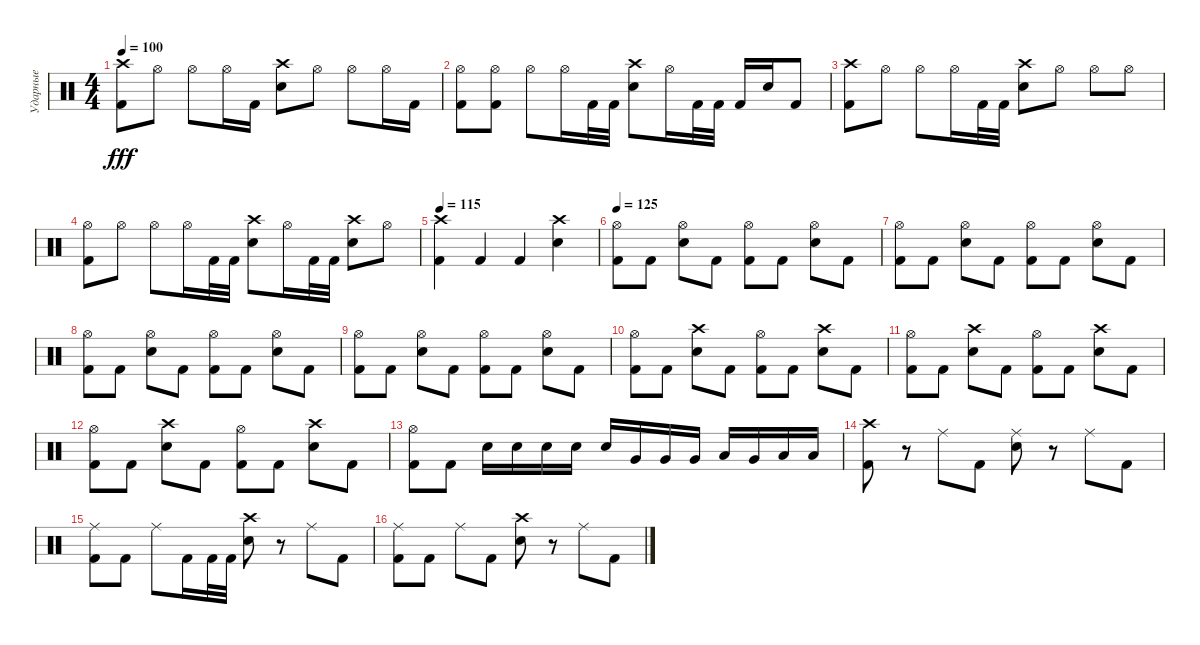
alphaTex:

\track ("Ударные" "Ударные") {instrument percussion}
\staff {score}
\articulation defaults
\ts (4 4)
\tempo 100
\clef neutral
\ks c
("Crash high (hit)" "Kick (hit) 2").8{dy fff} "Hi-Hat (open)".8 "Hi-Hat (open)".8 "Hi-Hat (open)".16 "Kick (hit) 2".16 ("Crash high (hit)" "Electric Snare (hit)").8 "Hi-Hat (open)".8 "Hi-Hat (open)".8 "Hi-Hat (open)".16 "Kick (hit) 2".16 |
("Hi-Hat (open)" "Kick (hit) 2").8 ("Hi-Hat (open)" "Kick (hit) 2").8 "Hi-Hat (open)".8 "Hi-Hat (open)".16 "Kick (hit) 2".32 "Kick (hit) 2".32 ("Crash high (hit)" "Electric Snare (hit)").8 "Hi-Hat (open)".16 "Kick (hit) 2".32 "Kick (hit) 2".32 "Kick (hit) 2".16 "Electric Snare (hit)".16 "Kick (hit) 2".8 |
("Crash high (hit)" "Kick (hit) 2").8 "Hi-Hat (open)".8 "Hi-Hat (open)".8 "Hi-Hat (open)".16 "Kick (hit) 2".32 "Kick (hit) 2".32 ("Crash high (hit)" "Electric Snare (hit)").8 "Hi-Hat (open)".8 "Hi-Hat (open)".8 "Hi-Hat (open)".8 |
("Hi-Hat (open)" "Kick (hit) 2").8 "Hi-Hat (open)".8 "Hi-Hat (open)".8 "Hi-Hat (open)".16 "Kick (hit) 2".32 "Kick (hit) 2".32 ("Crash high (hit)" "Electric Snare (hit)").8 "Hi-Hat (open)".16 "Kick (hit) 2".32 "Kick (hit) 2".32 ("Crash high (hit)" "Electric Snare (hit)").8 "Hi-Hat (open)".8 |
\tempo 115
("Crash high (hit)" "Kick (hit) 2").4 "Kick (hit) 2".4 "Kick (hit) 2".4 ("Crash high (hit)" "Electric Snare (hit)").4 |
\tempo 125
("Hi-Hat (open)" "Kick (hit) 2").8 "Kick (hit) 2".8 ("Hi-Hat (open)" "Electric Snare (hit)").8 "Kick (hit) 2".8 ("Hi-Hat (open)" "Kick (hit) 2").8 "Kick (hit) 2".8 ("Hi-Hat (open)" "Electric Snare (hit)").8 "Kick (hit) 2".8 |
("Hi-Hat (open)" "Kick (hit) 2").8 "Kick (hit) 2".8 ("Hi-Hat (open)" "Electric Snare (hit)").8 "Kick (hit) 2".8 ("Hi-Hat (open)" "Kick (hit) 2").8 "Kick (hit) 2".8 ("Hi-Hat (open)" "Electric Snare (hit)").8 "Kick (hit) 2".8 |
("Hi-Hat (open)" "Kick (hit) 2").8 "Kick (hit) 2".8 ("Hi-Hat (open)" "Electric Snare (hit)").8 "Kick (hit) 2".8 ("Hi-Hat (open)" "Kick (hit) 2").8 "Kick (hit) 2".8 ("Hi-Hat (open)" "Electric Snare (hit)").8 "Kick (hit) 2".8 |
("Hi-Hat (open)" "Kick (hit) 2").8 "Kick (hit) 2".8 ("Hi-Hat (open)" "Electric Snare (hit)").8 "Kick (hit) 2".8 ("Hi-Hat (open)" "Kick (hit) 2").8 "Kick (hit) 2".8 ("Hi-Hat (open)" "Electric Snare (hit)").8 "Kick (hit) 2".8 |
("Hi-Hat (open)" "Kick (hit) 2").8 "Kick (hit) 2".8 ("Crash high (hit)" "Electric Snare (hit)").8 "Kick (hit) 2".8 ("Hi-Hat (open)" "Kick (hit) 2").8 "Kick (hit) 2".8 ("Crash high (hit)" "Electric Snare (hit)").8 "Kick (hit) 2".8 |
("Hi-Hat (open)" "Kick (hit) 2").8 "Kick (hit) 2".8 ("Crash high (hit)" "Electric Snare (hit)").8 "Kick (hit) 2".8 ("Hi-Hat (open)" "Kick (hit) 2").8 "Kick (hit) 2".8 ("Crash high (hit)" "Electric Snare (hit)").8 "Kick (hit) 2".8 |
("Hi-Hat (open)" "Kick (hit) 2").8 "Kick (hit) 2".8 ("Crash high (hit)" "Electric Snare (hit)").8 "Kick (hit) 2".8 ("Hi-Hat (open)" "Kick (hit) 2").8 "Kick (hit) 2".8 ("Crash high (hit)" "Electric Snare (hit)").8 "Kick (hit) 2".8 |
("Hi-Hat (open)" "Kick (hit) 2").8 "Kick (hit) 2".8 "Electric Snare (hit)".16 "Electric Snare (hit)".16 "Electric Snare (hit)".16 "Electric Snare (hit)".16 "Electric Snare (hit)".16 "Very Low Tom (hit)".16 "Very Low Tom (hit)".16 "Very Low Tom (hit)".16 "Low Floor Tom (hit)".16 "Very Low Tom (hit)".16 "Low Floor Tom (hit)".16 "Low Floor Tom (hit)".16 |
("Crash high (hit)" "Kick (hit) 2").8 r.8 "Ride (middle)".8 "Kick (hit) 2".8 ("Ride (middle)" "Electric Snare (hit)").8 r.8 "Ride (middle)".8 "Kick (hit) 2".8 |
("Ride (middle)" "Kick (hit) 2").8 "Kick (hit) 2".8 "Ride (middle)".8 "Kick (hit) 2".16 "Kick (hit) 2".32 "Kick (hit) 2".32 ("Crash high (hit)" "Electric Snare (hit)").8 r.8 "Ride (middle)".8 "Kick (hit) 2".8 |
("Ride (middle)" "Kick (hit) 2").8 "Kick (hit) 2".8 "Ride (middle)".8 "Kick (hit) 2".8 ("Crash high (hit)" "Electric Snare (hit)").8 r.8 "Ride (middle)".8 "Kick (hit) 2".8
